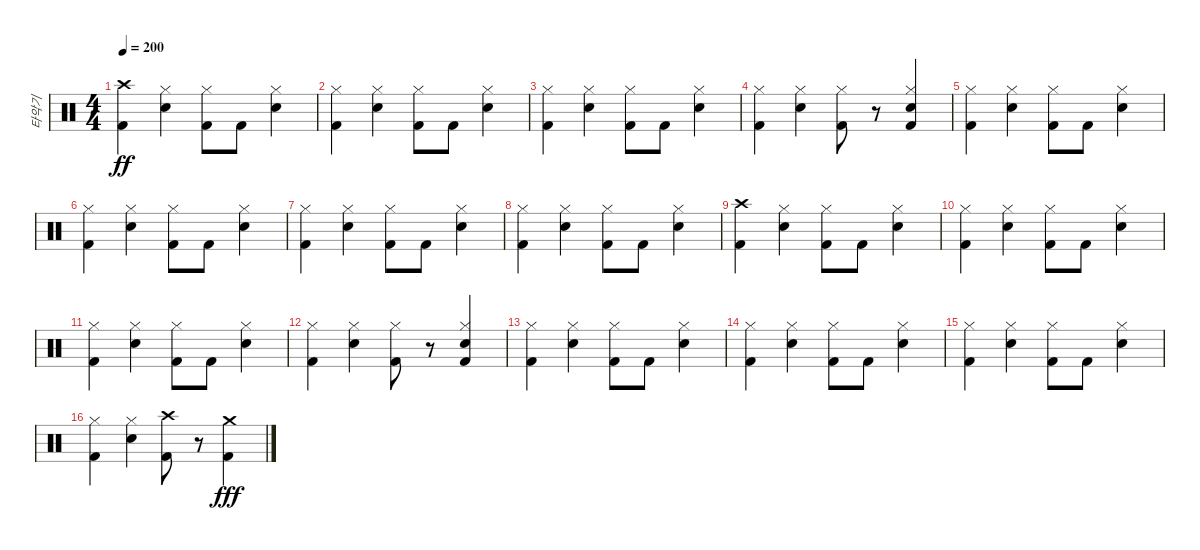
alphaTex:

\track ("타악기" "타악기") {instrument percussion}
\staff {score}
\articulation defaults
\ts (4 4)
\tempo 200
\clef neutral
\ks c
("Crash high (hit)" "Kick (hit) 2").4{dy ff} ("Hi-Hat (closed)" "Snare (hit) 2").4 ("Hi-Hat (closed)" "Kick (hit) 2").8 "Kick (hit) 2".8 ("Hi-Hat (closed)" "Snare (hit) 2").4 |
("Hi-Hat (closed)" "Kick (hit) 2").4 ("Hi-Hat (closed)" "Snare (hit) 2").4 ("Hi-Hat (closed)" "Kick (hit) 2").8 "Kick (hit) 2".8 ("Hi-Hat (closed)" "Snare (hit) 2").4 |
("Hi-Hat (closed)" "Kick (hit) 2").4 ("Hi-Hat (closed)" "Snare (hit) 2").4 ("Hi-Hat (closed)" "Kick (hit) 2").8 "Kick (hit) 2".8 ("Hi-Hat (closed)" "Snare (hit) 2").4 |
("Hi-Hat (closed)" "Kick (hit) 2").4 ("Hi-Hat (closed)" "Snare (hit) 2").4 ("Hi-Hat (closed)" "Kick (hit) 2").8 r.8 ("Hi-Hat (closed)" "Snare (hit) 2" "Kick (hit) 2").4 |
("Hi-Hat (closed)" "Kick (hit) 2").4 ("Hi-Hat (closed)" "Snare (hit) 2").4 ("Hi-Hat (closed)" "Kick (hit) 2").8 "Kick (hit) 2".8 ("Hi-Hat (closed)" "Snare (hit) 2").4 |
("Hi-Hat (closed)" "Kick (hit) 2").4 ("Hi-Hat (closed)" "Snare (hit) 2").4 ("Hi-Hat (closed)" "Kick (hit) 2").8 "Kick (hit) 2".8 ("Hi-Hat (closed)" "Snare (hit) 2").4 |
("Hi-Hat (closed)" "Kick (hit) 2").4 ("Hi-Hat (closed)" "Snare (hit) 2").4 ("Hi-Hat (closed)" "Kick (hit) 2").8 "Kick (hit) 2".8 ("Hi-Hat (closed)" "Snare (hit) 2").4 |
("Hi-Hat (closed)" "Kick (hit) 2").4 ("Hi-Hat (closed)" "Snare (hit) 2").4 ("Hi-Hat (closed)" "Kick (hit) 2").8 "Kick (hit) 2".8 ("Hi-Hat (closed)" "Snare (hit) 2").4 |
("Crash high (hit)" "Kick (hit) 2").4 ("Hi-Hat (closed)" "Snare (hit) 2").4 ("Hi-Hat (closed)" "Kick (hit) 2").8 "Kick (hit) 2".8 ("Hi-Hat (closed)" "Snare (hit) 2").4 |
("Hi-Hat (closed)" "Kick (hit) 2").4 ("Hi-Hat (closed)" "Snare (hit) 2").4 ("Hi-Hat (closed)" "Kick (hit) 2").8 "Kick (hit) 2".8 ("Hi-Hat (closed)" "Snare (hit) 2").4 |
("Hi-Hat (closed)" "Kick (hit) 2").4 ("Hi-Hat (closed)" "Snare (hit) 2").4 ("Hi-Hat (closed)" "Kick (hit) 2").8 "Kick (hit) 2".8 ("Hi-Hat (closed)" "Snare (hit) 2").4 |
("Hi-Hat (closed)" "Kick (hit) 2").4 ("Hi-Hat (closed)" "Snare (hit) 2").4 ("Hi-Hat (closed)" "Kick (hit) 2").8 r.8 ("Hi-Hat (closed)" "Snare (hit) 2" "Kick (hit) 2").4 |
("Hi-Hat (closed)" "Kick (hit) 2").4 ("Hi-Hat (closed)" "Snare (hit) 2").4 ("Hi-Hat (closed)" "Kick (hit) 2").8 "Kick (hit) 2".8 ("Hi-Hat (closed)" "Snare (hit) 2").4 |
("Hi-Hat (closed)" "Kick (hit) 2").4 ("Hi-Hat (closed)" "Snare (hit) 2").4 ("Hi-Hat (closed)" "Kick (hit) 2").8 "Kick (hit) 2".8 ("Hi-Hat (closed)" "Snare (hit) 2").4 |
("Hi-Hat (closed)" "Kick (hit) 2").4 ("Hi-Hat (closed)" "Snare (hit) 2").4 ("Hi-Hat (closed)" "Kick (hit) 2").8 "Kick (hit) 2".8 ("Hi-Hat (closed)" "Snare (hit) 2").4 |
("Hi-Hat (closed)" "Kick (hit) 2").4 ("Hi-Hat (closed)" "Snare (hit) 2").4 ("Crash high (hit)" "Kick (hit) 2").8 r.8 ("Crash medium (hit)" "Kick (hit) 2").4{dy fff}
